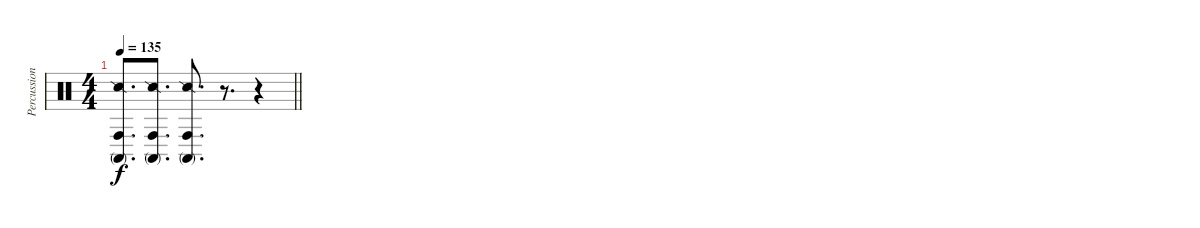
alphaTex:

\track ("Percussion FX" "Percussion") {instrument percussion}
\staff {score}
\articulation defaults
\ts (4 4)
\tempo 135
\clef neutral
\barLineRight lightlight
\ks c
("Snare (side stick) 2" "Conga high (mute)" "Conga high (hit)").8{d dy f} ("Snare (side stick) 2" "Conga high (mute)" "Conga high (hit)").8{d} ("Snare (side stick) 2" "Conga high (mute)" "Conga high (hit)").8{d} r.8{d} r.4
